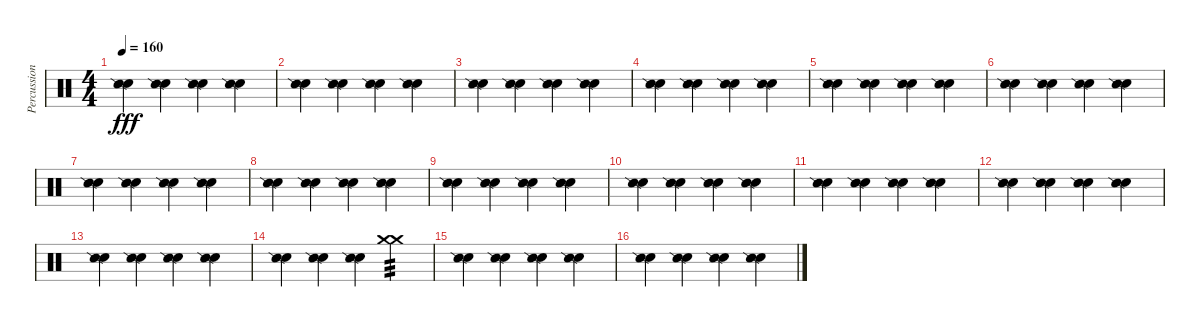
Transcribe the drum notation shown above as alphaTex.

\track ("Percussion 2" "Percussion") {instrument percussion}
\staff {score}
\articulation defaults
\ts (4 4)
\tempo 160
\clef neutral
\ks c
("Hand Clap (hit)" "Snare (side stick) 2").4{dy fff} ("Hand Clap (hit)" "Snare (side stick) 2").4 ("Hand Clap (hit)" "Snare (side stick) 2").4 ("Hand Clap (hit)" "Snare (side stick) 2").4 |
("Hand Clap (hit)" "Snare (side stick) 2").4 ("Hand Clap (hit)" "Snare (side stick) 2").4 ("Hand Clap (hit)" "Snare (side stick) 2").4 ("Hand Clap (hit)" "Snare (side stick) 2").4 |
("Hand Clap (hit)" "Snare (side stick) 2").4 ("Hand Clap (hit)" "Snare (side stick) 2").4 ("Hand Clap (hit)" "Snare (side stick) 2").4 ("Hand Clap (hit)" "Snare (side stick) 2").4 |
("Hand Clap (hit)" "Snare (side stick) 2").4 ("Hand Clap (hit)" "Snare (side stick) 2").4 ("Hand Clap (hit)" "Snare (side stick) 2").4 ("Hand Clap (hit)" "Snare (side stick) 2").4 |
("Hand Clap (hit)" "Snare (side stick) 2").4 ("Hand Clap (hit)" "Snare (side stick) 2").4 ("Hand Clap (hit)" "Snare (side stick) 2").4 ("Hand Clap (hit)" "Snare (side stick) 2").4 |
("Hand Clap (hit)" "Snare (side stick) 2").4 ("Hand Clap (hit)" "Snare (side stick) 2").4 ("Hand Clap (hit)" "Snare (side stick) 2").4 ("Hand Clap (hit)" "Snare (side stick) 2").4 |
("Hand Clap (hit)" "Snare (side stick) 2").4 ("Hand Clap (hit)" "Snare (side stick) 2").4 ("Hand Clap (hit)" "Snare (side stick) 2").4 ("Hand Clap (hit)" "Snare (side stick) 2").4 |
("Hand Clap (hit)" "Snare (side stick) 2").4 ("Hand Clap (hit)" "Snare (side stick) 2").4 ("Hand Clap (hit)" "Snare (side stick) 2").4 ("Hand Clap (hit)" "Snare (side stick) 2").4 |
("Hand Clap (hit)" "Snare (side stick) 2").4 ("Hand Clap (hit)" "Snare (side stick) 2").4 ("Hand Clap (hit)" "Snare (side stick) 2").4 ("Hand Clap (hit)" "Snare (side stick) 2").4 |
("Hand Clap (hit)" "Snare (side stick) 2").4 ("Hand Clap (hit)" "Snare (side stick) 2").4 ("Hand Clap (hit)" "Snare (side stick) 2").4 ("Hand Clap (hit)" "Snare (side stick) 2").4 |
("Hand Clap (hit)" "Snare (side stick) 2").4 ("Hand Clap (hit)" "Snare (side stick) 2").4 ("Hand Clap (hit)" "Snare (side stick) 2").4 ("Hand Clap (hit)" "Snare (side stick) 2").4 |
("Hand Clap (hit)" "Snare (side stick) 2").4 ("Hand Clap (hit)" "Snare (side stick) 2").4 ("Hand Clap (hit)" "Snare (side stick) 2").4 ("Hand Clap (hit)" "Snare (side stick) 2").4 |
("Hand Clap (hit)" "Snare (side stick) 2").4 ("Hand Clap (hit)" "Snare (side stick) 2").4 ("Hand Clap (hit)" "Snare (side stick) 2").4 ("Hand Clap (hit)" "Snare (side stick) 2").4 |
("Hand Clap (hit)" "Snare (side stick) 2").4 ("Hand Clap (hit)" "Snare (side stick) 2").4 ("Hand Clap (hit)" "Snare (side stick) 2").4 ("Crash medium (hit)" "Crash medium (hit)").4{tp 3} |
("Hand Clap (hit)" "Snare (side stick) 2").4 ("Hand Clap (hit)" "Snare (side stick) 2").4 ("Hand Clap (hit)" "Snare (side stick) 2").4 ("Hand Clap (hit)" "Snare (side stick) 2").4 |
("Hand Clap (hit)" "Snare (side stick) 2").4 ("Hand Clap (hit)" "Snare (side stick) 2").4 ("Hand Clap (hit)" "Snare (side stick) 2").4 ("Hand Clap (hit)" "Snare (side stick) 2").4
